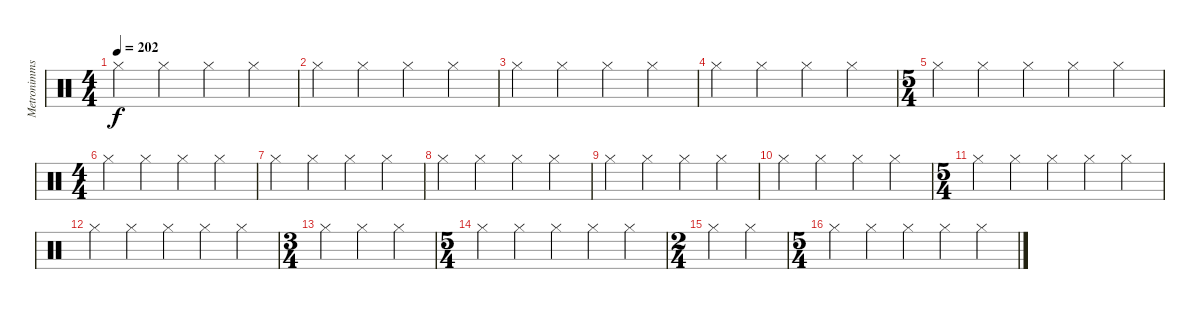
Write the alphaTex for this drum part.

\track ("Metronimms" "Metronimms") {instrument percussion}
\staff {score}
\articulation defaults
\ts (4 4)
\tempo 202
\clef neutral
\ks c "Hi-Hat (closed)".4{dy f} "Hi-Hat (closed)".4 "Hi-Hat (closed)".4 "Hi-Hat (closed)".4
|
"Hi-Hat (closed)".4 "Hi-Hat (closed)".4 "Hi-Hat (closed)".4 "Hi-Hat (closed)".4 |
"Hi-Hat (closed)".4 "Hi-Hat (closed)".4 "Hi-Hat (closed)".4 "Hi-Hat (closed)".4 |
"Hi-Hat (closed)".4 "Hi-Hat (closed)".4 "Hi-Hat (closed)".4 "Hi-Hat (closed)".4 |
\ts (5 4)
"Hi-Hat (closed)".4 "Hi-Hat (closed)".4 "Hi-Hat (closed)".4 "Hi-Hat (closed)".4 "Hi-Hat (closed)".4 |
\ts (4 4)
"Hi-Hat (closed)".4 "Hi-Hat (closed)".4 "Hi-Hat (closed)".4 "Hi-Hat (closed)".4 |
"Hi-Hat (closed)".4 "Hi-Hat (closed)".4 "Hi-Hat (closed)".4 "Hi-Hat (closed)".4 |
"Hi-Hat (closed)".4 "Hi-Hat (closed)".4 "Hi-Hat (closed)".4 "Hi-Hat (closed)".4 |
"Hi-Hat (closed)".4 "Hi-Hat (closed)".4 "Hi-Hat (closed)".4 "Hi-Hat (closed)".4 |
"Hi-Hat (closed)".4 "Hi-Hat (closed)".4 "Hi-Hat (closed)".4 "Hi-Hat (closed)".4 |
\ts (5 4)
"Hi-Hat (closed)".4 "Hi-Hat (closed)".4 "Hi-Hat (closed)".4 "Hi-Hat (closed)".4 "Hi-Hat (closed)".4 |
"Hi-Hat (closed)".4 "Hi-Hat (closed)".4 "Hi-Hat (closed)".4 "Hi-Hat (closed)".4 "Hi-Hat (closed)".4 |
\ts (3 4)
"Hi-Hat (closed)".4 "Hi-Hat (closed)".4 "Hi-Hat (closed)".4 |
\ts (5 4)
"Hi-Hat (closed)".4 "Hi-Hat (closed)".4 "Hi-Hat (closed)".4 "Hi-Hat (closed)".4 "Hi-Hat (closed)".4 |
\ts (2 4)
"Hi-Hat (closed)".4 "Hi-Hat (closed)".4 |
\ts (5 4)
"Hi-Hat (closed)".4 "Hi-Hat (closed)".4 "Hi-Hat (closed)".4 "Hi-Hat (closed)".4 "Hi-Hat (closed)".4
